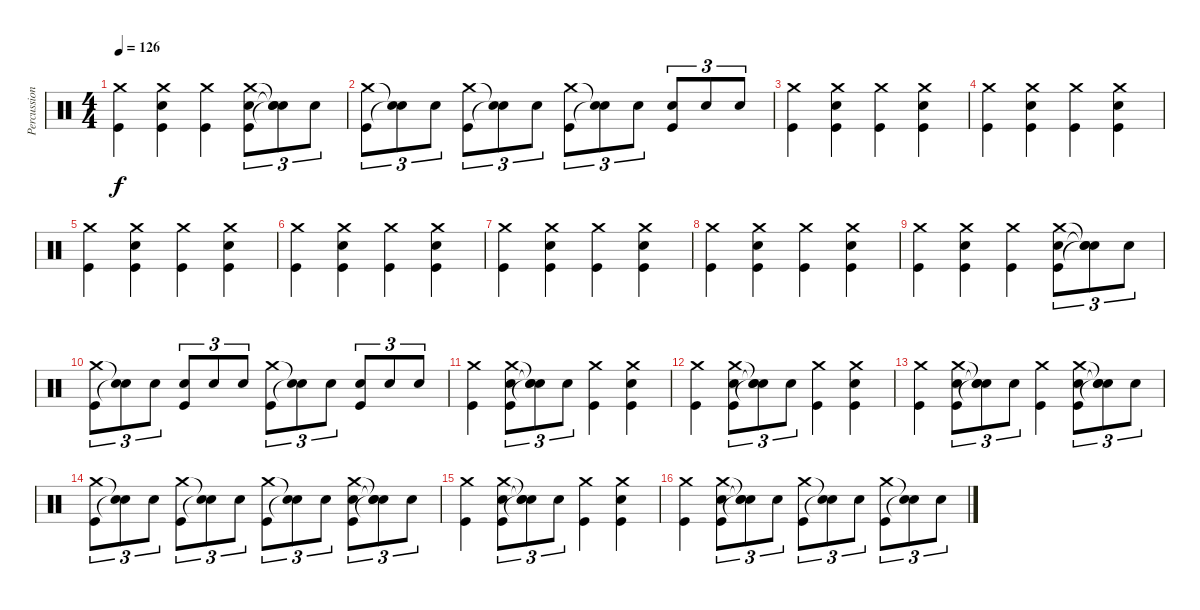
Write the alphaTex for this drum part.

\track ("Percussion" "Percussion") {instrument percussion}
\staff {score}
\articulation defaults
\ts (4 4)
\tempo 126
\clef neutral
\ks c
("Crash medium (hit)" "Kick (hit)").4{dy f} ("Crash medium (hit)" "Snare (hit) 2" "Kick (hit)").4 ("Crash medium (hit)" "Kick (hit)").4 ("Crash medium (hit)" "Snare (hit) 2" "Kick (hit)").8{tu (3 2)} ("Snare (hit)"{t} "Snare (hit)"{t} "Snare (hit)"{t}).8{tu (3 2)} "Snare (hit) 2".8{tu (3 2)} |
("Crash medium (hit)" "Kick (hit)").8{tu (3 2)} ("Snare (hit)"{t} "Snare (hit)"{t}).8{tu (3 2)} "Snare (hit) 2".8{tu (3 2)} ("Crash medium (hit)" "Kick (hit)").8{tu (3 2)} ("Snare (hit)"{t} "Snare (hit)"{t}).8{tu (3 2)} "Snare (hit) 2".8{tu (3 2)} ("Crash medium (hit)" "Kick (hit)").8{tu (3 2)} ("Snare (hit)"{t} "Snare (hit)"{t}).8{tu (3 2)} "Snare (hit) 2".8{tu (3 2)} ("Snare (hit) 2" "Kick (hit)").8{tu (3 2)} "Snare (hit) 2".8{tu (3 2)} "Snare (hit) 2".8{tu (3 2)} |
("Crash medium (hit)" "Kick (hit)").4 ("Crash medium (hit)" "Snare (hit) 2" "Kick (hit)").4 ("Crash medium (hit)" "Kick (hit)").4 ("Crash medium (hit)" "Snare (hit) 2" "Kick (hit)").4 |
("Crash medium (hit)" "Kick (hit)").4 ("Crash medium (hit)" "Snare (hit) 2" "Kick (hit)").4 ("Crash medium (hit)" "Kick (hit)").4 ("Crash medium (hit)" "Snare (hit) 2" "Kick (hit)").4 |
("Crash medium (hit)" "Kick (hit)").4 ("Crash medium (hit)" "Snare (hit) 2" "Kick (hit)").4 ("Crash medium (hit)" "Kick (hit)").4 ("Crash medium (hit)" "Snare (hit) 2" "Kick (hit)").4 |
("Crash medium (hit)" "Kick (hit)").4 ("Crash medium (hit)" "Snare (hit) 2" "Kick (hit)").4 ("Crash medium (hit)" "Kick (hit)").4 ("Crash medium (hit)" "Snare (hit) 2" "Kick (hit)").4 |
("Crash medium (hit)" "Kick (hit)").4 ("Crash medium (hit)" "Snare (hit) 2" "Kick (hit)").4 ("Crash medium (hit)" "Kick (hit)").4 ("Crash medium (hit)" "Snare (hit) 2" "Kick (hit)").4 |
("Crash medium (hit)" "Kick (hit)").4 ("Crash medium (hit)" "Snare (hit) 2" "Kick (hit)").4 ("Crash medium (hit)" "Kick (hit)").4 ("Crash medium (hit)" "Snare (hit) 2" "Kick (hit)").4 |
("Crash medium (hit)" "Kick (hit)").4 ("Crash medium (hit)" "Snare (hit) 2" "Kick (hit)").4 ("Crash medium (hit)" "Kick (hit)").4 ("Crash medium (hit)" "Snare (hit) 2" "Kick (hit)").8{tu (3 2)} ("Snare (hit)"{t} "Snare (hit)"{t} "Snare (hit)"{t}).8{tu (3 2)} "Snare (hit) 2".8{tu (3 2)} |
("Crash medium (hit)" "Kick (hit)").8{tu (3 2)} ("Snare (hit)"{t} "Snare (hit)"{t}).8{tu (3 2)} "Snare (hit) 2".8{tu (3 2)} ("Snare (hit) 2" "Kick (hit)").8{tu (3 2)} "Snare (hit) 2".8{tu (3 2)} "Snare (hit) 2".8{tu (3 2)} ("Crash medium (hit)" "Kick (hit)").8{tu (3 2)} ("Snare (hit)"{t} "Snare (hit)"{t}).8{tu (3 2)} "Snare (hit) 2".8{tu (3 2)} ("Snare (hit) 2" "Kick (hit)").8{tu (3 2)} "Snare (hit) 2".8{tu (3 2)} "Snare (hit) 2".8{tu (3 2)} |
("Crash medium (hit)" "Kick (hit)").4 ("Crash medium (hit)" "Snare (hit) 2" "Kick (hit)").8{tu (3 2)} ("Snare (hit)"{t} "Snare (hit)"{t} "Snare (hit)"{t}).8{tu (3 2)} "Snare (hit) 2".8{tu (3 2)} ("Crash medium (hit)" "Kick (hit)").4 ("Crash medium (hit)" "Snare (hit) 2" "Kick (hit)").4 |
("Crash medium (hit)" "Kick (hit)").4 ("Crash medium (hit)" "Snare (hit) 2" "Kick (hit)").8{tu (3 2)} ("Snare (hit)"{t} "Snare (hit)"{t} "Snare (hit)"{t}).8{tu (3 2)} "Snare (hit) 2".8{tu (3 2)} ("Crash medium (hit)" "Kick (hit)").4 ("Crash medium (hit)" "Snare (hit) 2" "Kick (hit)").4 |
("Crash medium (hit)" "Kick (hit)").4 ("Crash medium (hit)" "Snare (hit) 2" "Kick (hit)").8{tu (3 2)} ("Snare (hit)"{t} "Snare (hit)"{t} "Snare (hit)"{t}).8{tu (3 2)} "Snare (hit) 2".8{tu (3 2)} ("Crash medium (hit)" "Kick (hit)").4 ("Crash medium (hit)" "Snare (hit) 2" "Kick (hit)").8{tu (3 2)} ("Snare (hit)"{t} "Snare (hit)"{t} "Snare (hit)"{t}).8{tu (3 2)} "Snare (hit) 2".8{tu (3 2)} |
("Crash medium (hit)" "Kick (hit)").8{tu (3 2)} ("Snare (hit)"{t} "Snare (hit)"{t}).8{tu (3 2)} "Snare (hit) 2".8{tu (3 2)} ("Crash medium (hit)" "Kick (hit)").8{tu (3 2)} ("Snare (hit)"{t} "Snare (hit)"{t}).8{tu (3 2)} "Snare (hit) 2".8{tu (3 2)} ("Crash medium (hit)" "Kick (hit)").8{tu (3 2)} ("Snare (hit)"{t} "Snare (hit)"{t}).8{tu (3 2)} "Snare (hit) 2".8{tu (3 2)} ("Crash medium (hit)" "Snare (hit) 2" "Kick (hit)").8{tu (3 2)} ("Snare (hit)"{t} "Snare (hit)"{t} "Snare (hit)"{t}).8{tu (3 2)} "Snare (hit) 2".8{tu (3 2)} |
("Crash medium (hit)" "Kick (hit)").4 ("Crash medium (hit)" "Snare (hit) 2" "Kick (hit)").8{tu (3 2)} ("Snare (hit)"{t} "Snare (hit)"{t} "Snare (hit)"{t}).8{tu (3 2)} "Snare (hit) 2".8{tu (3 2)} ("Crash medium (hit)" "Kick (hit)").4 ("Crash medium (hit)" "Snare (hit) 2" "Kick (hit)").4 |
("Crash medium (hit)" "Kick (hit)").4 ("Crash medium (hit)" "Snare (hit) 2" "Kick (hit)").8{tu (3 2)} ("Snare (hit)"{t} "Snare (hit)"{t} "Snare (hit)"{t}).8{tu (3 2)} "Snare (hit) 2".8{tu (3 2)} ("Crash medium (hit)" "Kick (hit)").8{tu (3 2)} ("Snare (hit)"{t} "Snare (hit)"{t}).8{tu (3 2)} "Snare (hit) 2".8{tu (3 2)} ("Crash medium (hit)" "Kick (hit)").8{tu (3 2)} ("Snare (hit)"{t} "Snare (hit)"{t}).8{tu (3 2)} "Snare (hit) 2".8{tu (3 2)}
